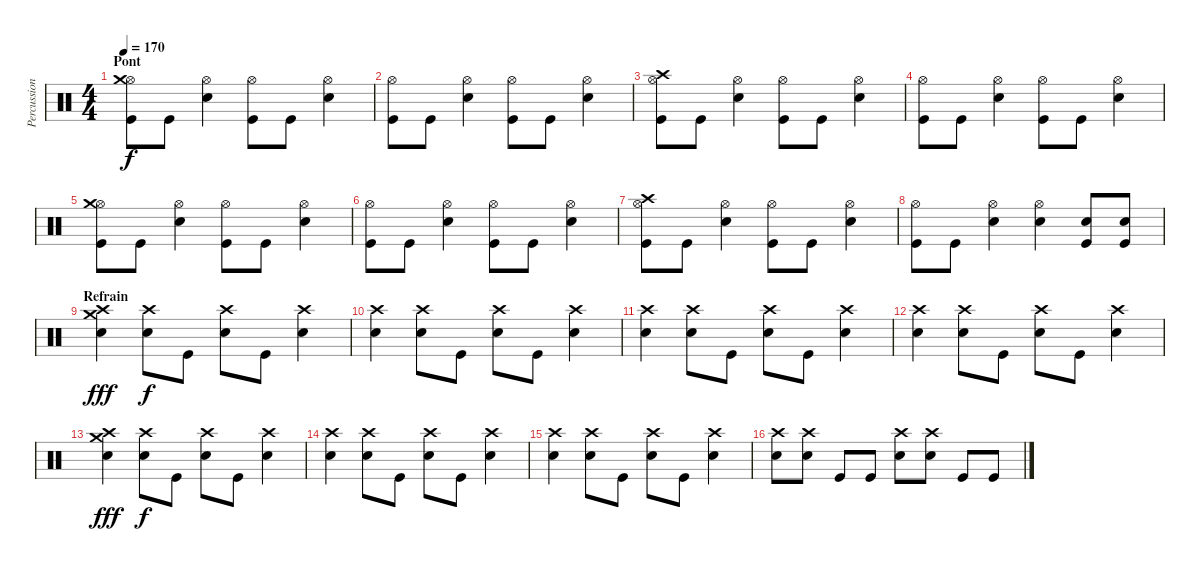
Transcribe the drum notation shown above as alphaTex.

\track ("Percussions" "Percussion") {instrument percussion}
\staff {score}
\articulation defaults
\ts (4 4)
\section ("" "Pont")
\tempo 170
\clef neutral
\ks c
("Hi-Hat (open)" "Crash medium (hit)" "Kick (hit)").8{dy f} "Kick (hit)".8 ("Hi-Hat (open)" "Electric Snare (hit)").4 ("Hi-Hat (open)" "Kick (hit)").8 "Kick (hit)".8 ("Hi-Hat (open)" "Electric Snare (hit)").4 |
("Hi-Hat (open)" "Kick (hit)").8 "Kick (hit)".8 ("Hi-Hat (open)" "Electric Snare (hit)").4 ("Hi-Hat (open)" "Kick (hit)").8 "Kick (hit)".8 ("Hi-Hat (open)" "Electric Snare (hit)").4 |
("Hi-Hat (open)" "Crash high (hit)" "Kick (hit)").8 "Kick (hit)".8 ("Hi-Hat (open)" "Electric Snare (hit)").4 ("Hi-Hat (open)" "Kick (hit)").8 "Kick (hit)".8 ("Hi-Hat (open)" "Electric Snare (hit)").4 |
("Hi-Hat (open)" "Kick (hit)").8 "Kick (hit)".8 ("Hi-Hat (open)" "Electric Snare (hit)").4 ("Hi-Hat (open)" "Kick (hit)").8 "Kick (hit)".8 ("Hi-Hat (open)" "Electric Snare (hit)").4 |
("Hi-Hat (open)" "Crash medium (hit)" "Kick (hit)").8 "Kick (hit)".8 ("Hi-Hat (open)" "Electric Snare (hit)").4 ("Hi-Hat (open)" "Kick (hit)").8 "Kick (hit)".8 ("Hi-Hat (open)" "Electric Snare (hit)").4 |
("Hi-Hat (open)" "Kick (hit)").8 "Kick (hit)".8 ("Hi-Hat (open)" "Electric Snare (hit)").4 ("Hi-Hat (open)" "Kick (hit)").8 "Kick (hit)".8 ("Hi-Hat (open)" "Electric Snare (hit)").4 |
("Hi-Hat (open)" "Crash high (hit)" "Kick (hit)").8 "Kick (hit)".8 ("Hi-Hat (open)" "Electric Snare (hit)").4 ("Hi-Hat (open)" "Kick (hit)").8 "Kick (hit)".8 ("Hi-Hat (open)" "Electric Snare (hit)").4 |
("Hi-Hat (open)" "Kick (hit)").8 "Kick (hit)".8 ("Hi-Hat (open)" "Electric Snare (hit)").4 ("Hi-Hat (open)" "Electric Snare (hit)").4 ("Electric Snare (hit)" "Kick (hit)").8 ("Electric Snare (hit)" "Kick (hit)").8 |
\section ("" "Refrain")
("Crash high (hit)" "Crash medium (hit)" "Electric Snare (hit)").4{dy fff} ("Crash high (hit)" "Electric Snare (hit)").8{dy f} "Kick (hit)".8 ("Crash high (hit)" "Electric Snare (hit)").8 "Kick (hit)".8 ("Crash high (hit)" "Electric Snare (hit)").4 |
("Crash high (hit)" "Electric Snare (hit)").4 ("Crash high (hit)" "Electric Snare (hit)").8 "Kick (hit)".8 ("Crash high (hit)" "Electric Snare (hit)").8 "Kick (hit)".8 ("Crash high (hit)" "Electric Snare (hit)").4 |
("Crash high (hit)" "Electric Snare (hit)").4 ("Crash high (hit)" "Electric Snare (hit)").8 "Kick (hit)".8 ("Crash high (hit)" "Electric Snare (hit)").8 "Kick (hit)".8 ("Crash high (hit)" "Electric Snare (hit)").4 |
("Crash high (hit)" "Electric Snare (hit)").4 ("Crash high (hit)" "Electric Snare (hit)").8 "Kick (hit)".8 ("Crash high (hit)" "Electric Snare (hit)").8 "Kick (hit)".8 ("Crash high (hit)" "Electric Snare (hit)").4 |
("Crash high (hit)" "Crash medium (hit)" "Electric Snare (hit)").4{dy fff} ("Crash high (hit)" "Electric Snare (hit)").8{dy f} "Kick (hit)".8 ("Crash high (hit)" "Electric Snare (hit)").8 "Kick (hit)".8 ("Crash high (hit)" "Electric Snare (hit)").4 |
("Crash high (hit)" "Electric Snare (hit)").4 ("Crash high (hit)" "Electric Snare (hit)").8 "Kick (hit)".8 ("Crash high (hit)" "Electric Snare (hit)").8 "Kick (hit)".8 ("Crash high (hit)" "Electric Snare (hit)").4 |
("Crash high (hit)" "Electric Snare (hit)").4 ("Crash high (hit)" "Electric Snare (hit)").8 "Kick (hit)".8 ("Crash high (hit)" "Electric Snare (hit)").8 "Kick (hit)".8 ("Crash high (hit)" "Electric Snare (hit)").4 |
("Crash high (hit)" "Electric Snare (hit)").8 ("Crash high (hit)" "Electric Snare (hit)").8 "Kick (hit)".8 "Kick (hit)".8 ("Crash high (hit)" "Electric Snare (hit)").8 ("Crash high (hit)" "Electric Snare (hit)").8 "Kick (hit)".8 "Kick (hit)".8
